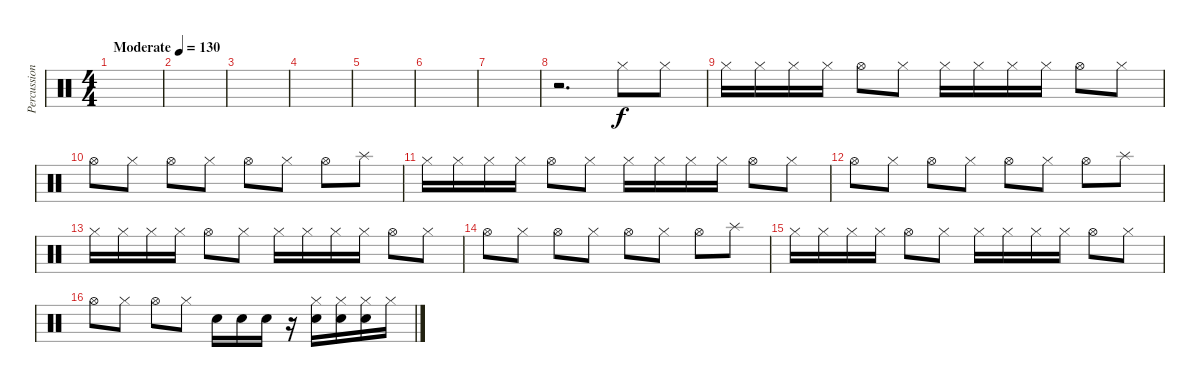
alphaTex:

\track ("Percussion" "Percussion") {instrument percussion}
\staff {score}
\articulation defaults
\ts (4 4)
\tempo (130 "Moderate")
\clef neutral
\ks c
|
|
|
|
|
|
|
r.2{d} "Hi-Hat (closed)".8 "Hi-Hat (closed)".8 |
"Hi-Hat (closed)".16 "Hi-Hat (closed)".16 "Hi-Hat (closed)".16 "Hi-Hat (closed)".16 "Hi-Hat (open)".8 "Hi-Hat (closed)".8 "Hi-Hat (closed)".16 "Hi-Hat (closed)".16 "Hi-Hat (closed)".16 "Hi-Hat (closed)".16 "Hi-Hat (open)".8 "Hi-Hat (closed)".8 |
"Hi-Hat (open)".8 "Hi-Hat (closed)".8 "Hi-Hat (open)".8 "Hi-Hat (closed)".8 "Hi-Hat (open)".8 "Hi-Hat (closed)".8 "Hi-Hat (open)".8 "Splash (hit)".8 |
"Hi-Hat (closed)".16 "Hi-Hat (closed)".16 "Hi-Hat (closed)".16 "Hi-Hat (closed)".16 "Hi-Hat (open)".8 "Hi-Hat (closed)".8 "Hi-Hat (closed)".16 "Hi-Hat (closed)".16 "Hi-Hat (closed)".16 "Hi-Hat (closed)".16 "Hi-Hat (open)".8 "Hi-Hat (closed)".8 |
"Hi-Hat (open)".8 "Hi-Hat (closed)".8 "Hi-Hat (open)".8 "Hi-Hat (closed)".8 "Hi-Hat (open)".8 "Hi-Hat (closed)".8 "Hi-Hat (open)".8 "Splash (hit)".8 |
"Hi-Hat (closed)".16 "Hi-Hat (closed)".16 "Hi-Hat (closed)".16 "Hi-Hat (closed)".16 "Hi-Hat (open)".8 "Hi-Hat (closed)".8 "Hi-Hat (closed)".16 "Hi-Hat (closed)".16 "Hi-Hat (closed)".16 "Hi-Hat (closed)".16 "Hi-Hat (open)".8 "Hi-Hat (closed)".8 |
"Hi-Hat (open)".8 "Hi-Hat (closed)".8 "Hi-Hat (open)".8 "Hi-Hat (closed)".8 "Hi-Hat (open)".8 "Hi-Hat (closed)".8 "Hi-Hat (open)".8 "Splash (hit)".8 |
"Hi-Hat (closed)".16 "Hi-Hat (closed)".16 "Hi-Hat (closed)".16 "Hi-Hat (closed)".16 "Hi-Hat (open)".8 "Hi-Hat (closed)".8 "Hi-Hat (closed)".16 "Hi-Hat (closed)".16 "Hi-Hat (closed)".16 "Hi-Hat (closed)".16 "Hi-Hat (open)".8 "Hi-Hat (closed)".8 |
"Hi-Hat (open)".8 "Hi-Hat (closed)".8 "Hi-Hat (open)".8 "Hi-Hat (closed)".8 "Snare (hit) 2".16 "Snare (hit) 2".16 "Snare (hit) 2".16 r.16 ("Snare (hit) 2" "Hi-Hat (closed)").16 ("Snare (hit) 2" "Hi-Hat (closed)").16 ("Snare (hit) 2" "Hi-Hat (closed)").16 "Hi-Hat (closed)".16
